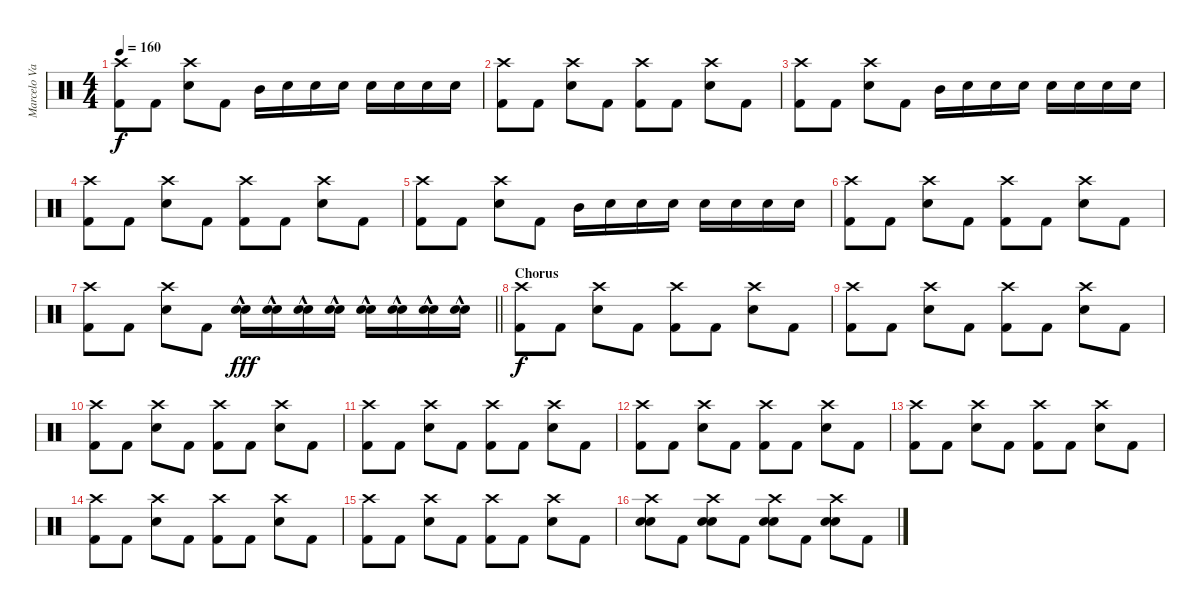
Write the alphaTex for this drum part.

\track ("Marcelo Valenzuela (Bateria)" "Marcelo Va") {instrument percussion}
\staff {score}
\articulation defaults
\ts (4 4)
\tempo 160
\clef neutral
\ks c
("Crash high (hit)" "Kick (hit) 2").8{dy f} "Kick (hit) 2".8 ("Crash high (hit)" "Electric Snare (hit)").8 "Kick (hit) 2".8 "Mid Tom (hit)".16 "Electric Snare (hit)".16 "Electric Snare (hit)".16 "Electric Snare (hit)".16 "Electric Snare (hit)".16 "Electric Snare (hit)".16 "Electric Snare (hit)".16 "Electric Snare (hit)".16 |
("Crash high (hit)" "Kick (hit) 2").8 "Kick (hit) 2".8 ("Crash high (hit)" "Electric Snare (hit)").8 "Kick (hit) 2".8 ("Crash high (hit)" "Kick (hit) 2").8 "Kick (hit) 2".8 ("Crash high (hit)" "Electric Snare (hit)").8 "Kick (hit) 2".8 |
("Crash high (hit)" "Kick (hit) 2").8 "Kick (hit) 2".8 ("Crash high (hit)" "Electric Snare (hit)").8 "Kick (hit) 2".8 "Mid Tom (hit)".16 "Electric Snare (hit)".16 "Electric Snare (hit)".16 "Electric Snare (hit)".16 "Electric Snare (hit)".16 "Electric Snare (hit)".16 "Electric Snare (hit)".16 "Electric Snare (hit)".16 |
("Crash high (hit)" "Kick (hit) 2").8 "Kick (hit) 2".8 ("Crash high (hit)" "Electric Snare (hit)").8 "Kick (hit) 2".8 ("Crash high (hit)" "Kick (hit) 2").8 "Kick (hit) 2".8 ("Crash high (hit)" "Electric Snare (hit)").8 "Kick (hit) 2".8 |
("Crash high (hit)" "Kick (hit) 2").8 "Kick (hit) 2".8 ("Crash high (hit)" "Electric Snare (hit)").8 "Kick (hit) 2".8 "Mid Tom (hit)".16 "Electric Snare (hit)".16 "Electric Snare (hit)".16 "Electric Snare (hit)".16 "Electric Snare (hit)".16 "Electric Snare (hit)".16 "Electric Snare (hit)".16 "Electric Snare (hit)".16 |
("Crash high (hit)" "Kick (hit) 2").8 "Kick (hit) 2".8 ("Crash high (hit)" "Electric Snare (hit)").8 "Kick (hit) 2".8 ("Crash high (hit)" "Kick (hit) 2").8 "Kick (hit) 2".8 ("Crash high (hit)" "Electric Snare (hit)").8 "Kick (hit) 2".8 |
\barLineRight lightlight
("Crash high (hit)" "Kick (hit) 2").8 "Kick (hit) 2".8 ("Crash high (hit)" "Electric Snare (hit)").8 "Kick (hit) 2".8 ("Electric Snare (hit)" "Electric Snare (hit)"{hac}).16{dy fff} ("Electric Snare (hit)" "Electric Snare (hit)"{hac}).16 ("Electric Snare (hit)" "Electric Snare (hit)"{hac}).16 ("Electric Snare (hit)" "Electric Snare (hit)"{hac}).16 ("Electric Snare (hit)" "Electric Snare (hit)"{hac}).16 ("Electric Snare (hit)" "Electric Snare (hit)"{hac}).16 ("Electric Snare (hit)" "Electric Snare (hit)"{hac}).16 ("Electric Snare (hit)" "Electric Snare (hit)"{hac}).16 |
\section ("" "Chorus")
("Crash high (hit)" "Kick (hit) 2").8{dy f} "Kick (hit) 2".8 ("Crash high (hit)" "Electric Snare (hit)").8 "Kick (hit) 2".8 ("Crash high (hit)" "Kick (hit) 2").8 "Kick (hit) 2".8 ("Crash high (hit)" "Electric Snare (hit)").8 "Kick (hit) 2".8 |
("Crash high (hit)" "Kick (hit) 2").8 "Kick (hit) 2".8 ("Crash high (hit)" "Electric Snare (hit)").8 "Kick (hit) 2".8 ("Crash high (hit)" "Kick (hit) 2").8 "Kick (hit) 2".8 ("Crash high (hit)" "Electric Snare (hit)").8 "Kick (hit) 2".8 |
("Crash high (hit)" "Kick (hit) 2").8 "Kick (hit) 2".8 ("Crash high (hit)" "Electric Snare (hit)").8 "Kick (hit) 2".8 ("Crash high (hit)" "Kick (hit) 2").8 "Kick (hit) 2".8 ("Crash high (hit)" "Electric Snare (hit)").8 "Kick (hit) 2".8 |
("Crash high (hit)" "Kick (hit) 2").8 "Kick (hit) 2".8 ("Crash high (hit)" "Electric Snare (hit)").8 "Kick (hit) 2".8 ("Crash high (hit)" "Kick (hit) 2").8 "Kick (hit) 2".8 ("Crash high (hit)" "Electric Snare (hit)").8 "Kick (hit) 2".8 |
("Crash high (hit)" "Kick (hit) 2").8 "Kick (hit) 2".8 ("Crash high (hit)" "Electric Snare (hit)").8 "Kick (hit) 2".8 ("Crash high (hit)" "Kick (hit) 2").8 "Kick (hit) 2".8 ("Crash high (hit)" "Electric Snare (hit)").8 "Kick (hit) 2".8 |
("Crash high (hit)" "Kick (hit) 2").8 "Kick (hit) 2".8 ("Crash high (hit)" "Electric Snare (hit)").8 "Kick (hit) 2".8 ("Crash high (hit)" "Kick (hit) 2").8 "Kick (hit) 2".8 ("Crash high (hit)" "Electric Snare (hit)").8 "Kick (hit) 2".8 |
("Crash high (hit)" "Kick (hit) 2").8 "Kick (hit) 2".8 ("Crash high (hit)" "Electric Snare (hit)").8 "Kick (hit) 2".8 ("Crash high (hit)" "Kick (hit) 2").8 "Kick (hit) 2".8 ("Crash high (hit)" "Electric Snare (hit)").8 "Kick (hit) 2".8 |
("Crash high (hit)" "Kick (hit) 2").8 "Kick (hit) 2".8 ("Crash high (hit)" "Electric Snare (hit)").8 "Kick (hit) 2".8 ("Crash high (hit)" "Kick (hit) 2").8 "Kick (hit) 2".8 ("Crash high (hit)" "Electric Snare (hit)").8 "Kick (hit) 2".8 |
("Crash high (hit)" "Snare (hit) 2" "Electric Snare (hit)").8 "Kick (hit) 2".8 ("Crash high (hit)" "Snare (hit) 2" "Electric Snare (hit)").8 "Kick (hit) 2".8 ("Crash high (hit)" "Snare (hit) 2" "Electric Snare (hit)").8 "Kick (hit) 2".8 ("Crash high (hit)" "Snare (hit) 2" "Electric Snare (hit)").8 "Kick (hit) 2".8
